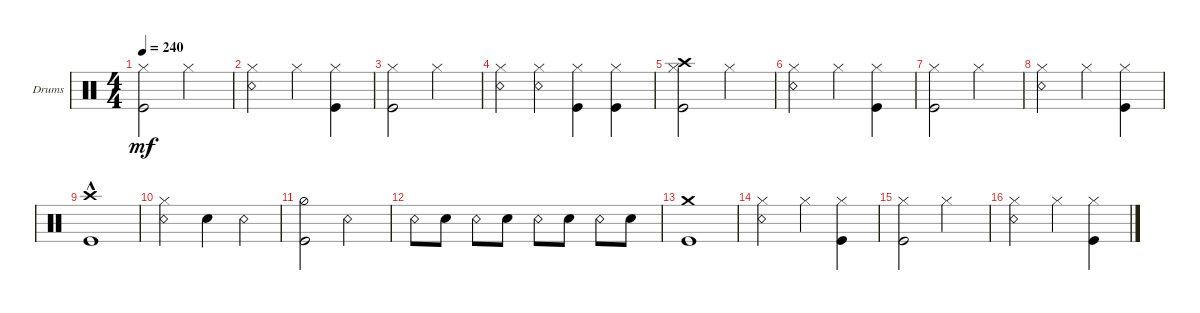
\defaultSystemsLayout 4
\bracketExtendMode groupsimilarinstruments
\firstSystemTrackNameOrientation horizontal
\otherSystemsTrackNameOrientation horizontal
\track ("Drumkit" "Drums") {instrument percussion}
\staff {score}
\articulation defaults
\ts (4 4)
\tempo 240
\clef neutral
\ks c
("Kick (hit)" "Hi-Hat (closed)").2{dy mf} "Hi-Hat (closed)".2 |
("Snare (rim shot)" "Hi-Hat (closed)").2 "Hi-Hat (closed)".4 ("Kick (hit)" "Hi-Hat (closed)").4 |
("Kick (hit)" "Hi-Hat (closed)").2 "Hi-Hat (closed)".2 |
("Snare (rim shot)" "Hi-Hat (closed)").4 ("Snare (rim shot)" "Hi-Hat (closed)").4 ("Kick (hit)" "Hi-Hat (closed)").4 ("Kick (hit)" "Hi-Hat (closed)").4 |
("Kick (hit)" "Hi-Hat (closed)" "Crash high (hit)").2 "Hi-Hat (closed)".2 |
("Snare (rim shot)" "Hi-Hat (closed)").2 "Hi-Hat (closed)".4 ("Kick (hit)" "Hi-Hat (closed)").4 |
("Kick (hit)" "Hi-Hat (closed)").2 "Hi-Hat (closed)".2 |
("Snare (rim shot)" "Hi-Hat (closed)").2 "Hi-Hat (closed)".4 ("Kick (hit)" "Hi-Hat (closed)").4 |
("Crash high (hit)"{hac} "Kick (hit)"{hac}).1 |
("Snare (rim shot)" "Hi-Hat (closed)").2 "Snare (hit) 2".4 "Snare (rim shot)".4 |
("Kick (hit)" "Hi-Hat (half)").2 "Snare (rim shot)".2 |
"Snare (rim shot)".8 "Snare (hit) 2".8 "Snare (rim shot)".8 "Snare (hit) 2".8 "Snare (rim shot)".8 "Snare (hit) 2".8 "Snare (rim shot)".8 "Snare (hit) 2".8 |
("Crash medium (hit)" "Kick (hit)").1 |
("Snare (rim shot)" "Hi-Hat (closed)").2 "Hi-Hat (closed)".4 ("Kick (hit)" "Hi-Hat (closed)").4 |
("Kick (hit)" "Hi-Hat (closed)").2 "Hi-Hat (closed)".2 |
("Snare (rim shot)" "Hi-Hat (closed)").2 "Hi-Hat (closed)".4 ("Kick (hit)" "Hi-Hat (closed)").4
